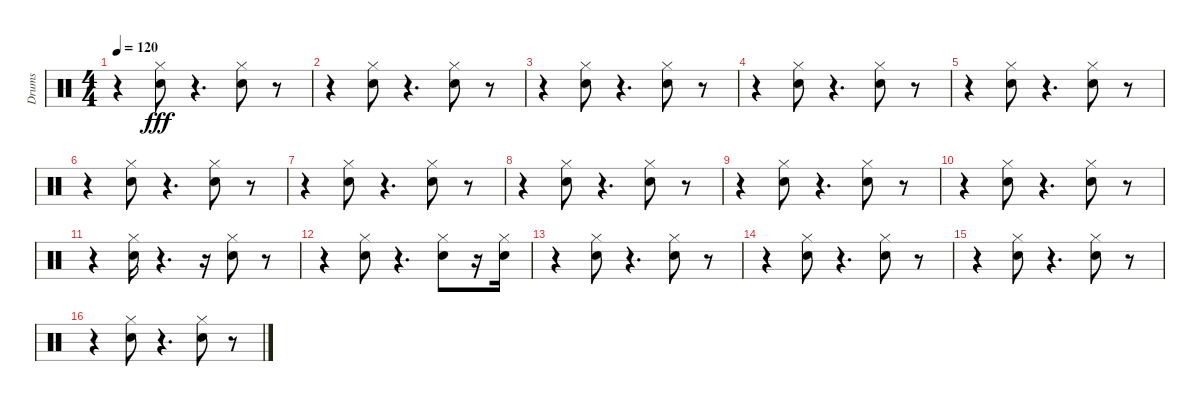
\track ("Drums" "Drums") {instrument percussion}
\staff {score}
\articulation defaults
\ts (4 4)
\tempo 120
\clef neutral
\ks c
r.4{dy fff} ("Hi-Hat (closed)" "Electric Snare (hit)").8 r.4{d} ("Hi-Hat (closed)" "Electric Snare (hit)").8 r.8 |
r.4 ("Hi-Hat (closed)" "Electric Snare (hit)").8 r.4{d} ("Hi-Hat (closed)" "Electric Snare (hit)").8 r.8 |
r.4 ("Hi-Hat (closed)" "Electric Snare (hit)").8 r.4{d} ("Hi-Hat (closed)" "Electric Snare (hit)").8 r.8 |
r.4 ("Hi-Hat (closed)" "Electric Snare (hit)").8 r.4{d} ("Hi-Hat (closed)" "Electric Snare (hit)").8 r.8 |
r.4 ("Hi-Hat (closed)" "Electric Snare (hit)").8 r.4{d} ("Hi-Hat (closed)" "Electric Snare (hit)").8 r.8 |
r.4 ("Hi-Hat (closed)" "Electric Snare (hit)").8 r.4{d} ("Hi-Hat (closed)" "Electric Snare (hit)").8 r.8 |
r.4 ("Hi-Hat (closed)" "Electric Snare (hit)").8 r.4{d} ("Hi-Hat (closed)" "Electric Snare (hit)").8 r.8 |
r.4 ("Hi-Hat (closed)" "Electric Snare (hit)").8 r.4{d} ("Hi-Hat (closed)" "Electric Snare (hit)").8 r.8 |
r.4 ("Hi-Hat (closed)" "Electric Snare (hit)").8 r.4{d} ("Hi-Hat (closed)" "Electric Snare (hit)").8 r.8 |
r.4 ("Hi-Hat (closed)" "Electric Snare (hit)").8 r.4{d} ("Hi-Hat (closed)" "Electric Snare (hit)").8 r.8 |
r.4 ("Hi-Hat (closed)" "Electric Snare (hit)").16 r.4{d} r.16 ("Hi-Hat (closed)" "Electric Snare (hit)").8 r.8 |
r.4 ("Hi-Hat (closed)" "Electric Snare (hit)").8 r.4{d} ("Hi-Hat (closed)" "Electric Snare (hit)").8 r.16 ("Hi-Hat (closed)" "Electric Snare (hit)").16 |
r.4 ("Hi-Hat (closed)" "Electric Snare (hit)").8 r.4{d} ("Hi-Hat (closed)" "Electric Snare (hit)").8 r.8 |
r.4 ("Hi-Hat (closed)" "Electric Snare (hit)").8 r.4{d} ("Hi-Hat (closed)" "Electric Snare (hit)").8 r.8 |
r.4 ("Hi-Hat (closed)" "Electric Snare (hit)").8 r.4{d} ("Hi-Hat (closed)" "Electric Snare (hit)").8 r.8 |
r.4 ("Hi-Hat (closed)" "Electric Snare (hit)").8 r.4{d} ("Hi-Hat (closed)" "Electric Snare (hit)").8 r.8
